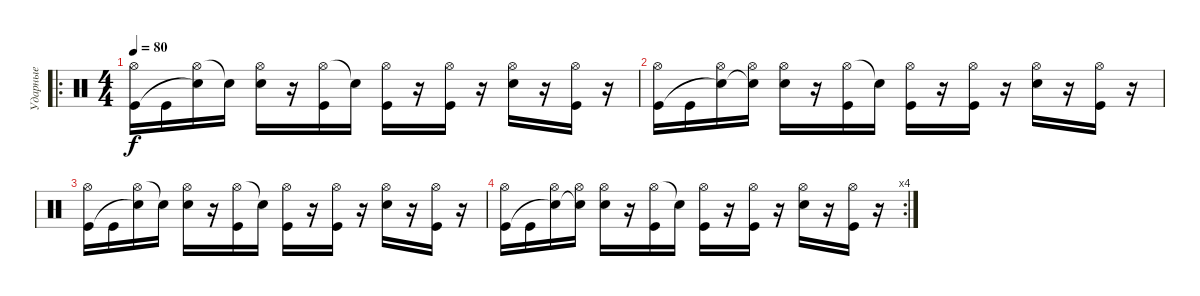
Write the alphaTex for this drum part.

\track ("Ударные" "Ударные") {instrument percussion}
\staff {score}
\articulation defaults
\ro
\ts (4 4)
\tempo 80
\clef neutral
\ks c
("Hi-Hat (open)" "Kick (hit)").16{dy f} "Kick (hit)".16 ("Hi-Hat (open)" "Snare (hit)"{t}).16 "Electric Snare (hit)"{t}.16 ("Hi-Hat (open)" "Electric Snare (hit)").16 r.16 ("Hi-Hat (open)" "Kick (hit)").16 "Snare (hit)"{t}.16 ("Hi-Hat (open)" "Kick (hit)").16 r.16 ("Hi-Hat (open)" "Kick (hit)").16 r.16 ("Hi-Hat (open)" "Electric Snare (hit)").16 r.16 ("Hi-Hat (open)" "Kick (hit)").16 r.16 |
("Hi-Hat (open)" "Kick (hit)").16 "Kick (hit)".16 ("Hi-Hat (open)" "Snare (hit)"{t}).16 ("Hi-Hat (open)" "Electric Snare (hit)"{t}).16 ("Hi-Hat (open)" "Electric Snare (hit)").16 r.16 ("Hi-Hat (open)" "Kick (hit)").16 "Snare (hit)"{t}.16 ("Hi-Hat (open)" "Kick (hit)").16 r.16 ("Hi-Hat (open)" "Kick (hit)").16 r.16 ("Hi-Hat (open)" "Electric Snare (hit)").16 r.16 ("Hi-Hat (open)" "Kick (hit)").16 r.16 |
("Hi-Hat (open)" "Kick (hit)").16 "Kick (hit)".16 ("Hi-Hat (open)" "Snare (hit)"{t}).16 "Electric Snare (hit)"{t}.16 ("Hi-Hat (open)" "Electric Snare (hit)").16 r.16 ("Hi-Hat (open)" "Kick (hit)").16 "Snare (hit)"{t}.16 ("Hi-Hat (open)" "Kick (hit)").16 r.16 ("Hi-Hat (open)" "Kick (hit)").16 r.16 ("Hi-Hat (open)" "Electric Snare (hit)").16 r.16 ("Hi-Hat (open)" "Kick (hit)").16 r.16 |
\rc 4
("Hi-Hat (open)" "Kick (hit)").16 "Kick (hit)".16 ("Hi-Hat (open)" "Snare (hit)"{t}).16 ("Hi-Hat (open)" "Electric Snare (hit)"{t}).16 ("Hi-Hat (open)" "Electric Snare (hit)").16 r.16 ("Hi-Hat (open)" "Kick (hit)").16 "Snare (hit)"{t}.16 ("Hi-Hat (open)" "Kick (hit)").16 r.16 ("Hi-Hat (open)" "Kick (hit)").16 r.16 ("Hi-Hat (open)" "Electric Snare (hit)").16 r.16 ("Hi-Hat (open)" "Kick (hit)").16 r.16
